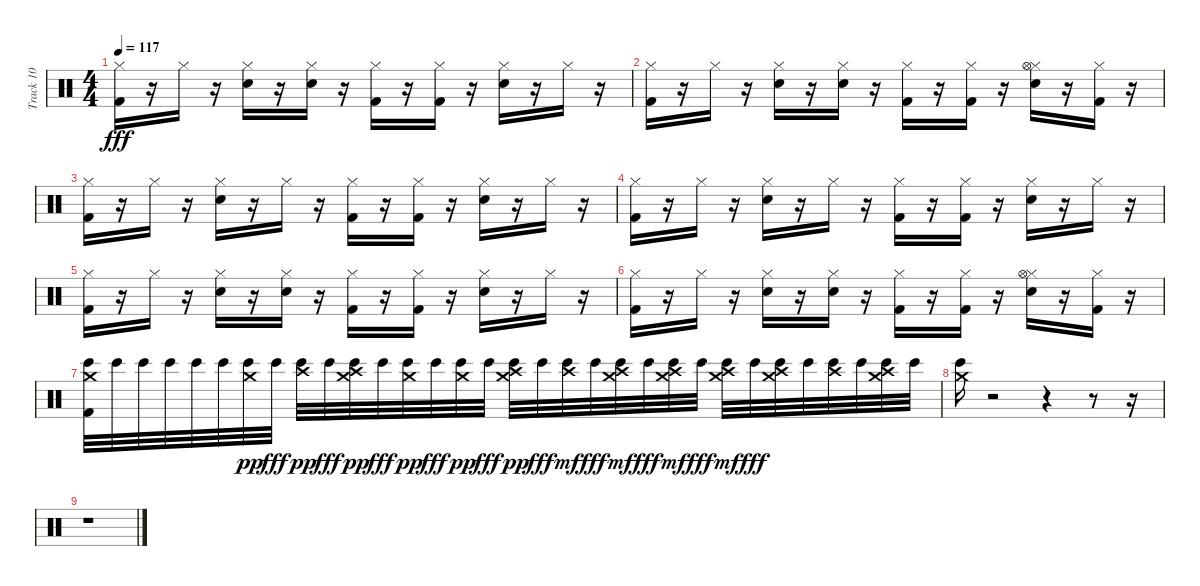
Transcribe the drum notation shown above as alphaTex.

\track ("Track 10" "Track 10") {instrument percussion}
\staff {score}
\articulation defaults
\ts (4 4)
\tempo 117
\clef neutral
\ks c
("Hi-Hat (closed)" "Kick (hit) 2").16{dy fff} r.16 "Hi-Hat (closed)".16 r.16 ("Hi-Hat (closed)" "Snare (hit) 2").16 r.16 ("Hi-Hat (closed)" "Snare (hit) 2").16 r.16 ("Hi-Hat (closed)" "Kick (hit) 2").16 r.16 ("Hi-Hat (closed)" "Kick (hit) 2").16 r.16 ("Hi-Hat (closed)" "Snare (hit) 2").16 r.16 "Hi-Hat (closed)".16 r.16 |
("Hi-Hat (closed)" "Kick (hit) 2").16 r.16 "Hi-Hat (closed)".16 r.16 ("Hi-Hat (closed)" "Snare (hit) 2").16 r.16 ("Hi-Hat (closed)" "Snare (hit) 2").16 r.16 ("Hi-Hat (closed)" "Kick (hit) 2").16 r.16 ("Hi-Hat (closed)" "Kick (hit) 2").16 r.16 ("Hi-Hat (closed)" "Hi-Hat (open)" "Snare (hit) 2").16 r.16 ("Hi-Hat (closed)" "Kick (hit) 2").16 r.16 |
("Hi-Hat (closed)" "Kick (hit) 2").16 r.16 "Hi-Hat (closed)".16 r.16 ("Hi-Hat (closed)" "Snare (hit) 2").16 r.16 "Hi-Hat (closed)".16 r.16 ("Hi-Hat (closed)" "Kick (hit) 2").16 r.16 ("Hi-Hat (closed)" "Kick (hit) 2").16 r.16 ("Hi-Hat (closed)" "Snare (hit) 2").16 r.16 "Hi-Hat (closed)".16 r.16 |
("Hi-Hat (closed)" "Kick (hit) 2").16 r.16 "Hi-Hat (closed)".16 r.16 ("Hi-Hat (closed)" "Snare (hit) 2").16 r.16 "Hi-Hat (closed)".16 r.16 ("Hi-Hat (closed)" "Kick (hit) 2").16 r.16 ("Hi-Hat (closed)" "Kick (hit) 2").16 r.16 ("Hi-Hat (closed)" "Snare (hit) 2").16 r.16 "Hi-Hat (closed)".16 r.16 |
("Hi-Hat (closed)" "Kick (hit) 2").16 r.16 "Hi-Hat (closed)".16 r.16 ("Hi-Hat (closed)" "Snare (hit) 2").16 r.16 ("Hi-Hat (closed)" "Snare (hit) 2").16 r.16 ("Hi-Hat (closed)" "Kick (hit) 2").16 r.16 ("Hi-Hat (closed)" "Kick (hit) 2").16 r.16 ("Hi-Hat (closed)" "Snare (hit) 2").16 r.16 "Hi-Hat (closed)".16 r.16 |
("Hi-Hat (closed)" "Kick (hit) 2").16 r.16 "Hi-Hat (closed)".16 r.16 ("Hi-Hat (closed)" "Snare (hit) 2").16 r.16 ("Hi-Hat (closed)" "Snare (hit) 2").16 r.16 ("Hi-Hat (closed)" "Kick (hit) 2").16 r.16 ("Hi-Hat (closed)" "Kick (hit) 2").16 r.16 ("Hi-Hat (closed)" "Hi-Hat (open)" "Snare (hit) 2").16 r.16 ("Hi-Hat (closed)" "Kick (hit) 2").16 r.16 |
("Bongo High (hit)" "Crash medium (hit)" "Kick (hit) 2").32 "Bongo High (hit)".32 "Bongo High (hit)".32 "Bongo High (hit)".32 "Bongo High (hit)".32 "Bongo High (hit)".32 ("Bongo High (hit)" "Crash medium (hit)").32{dy pp volume 11} "Bongo High (hit)".32{dy fff} ("Bongo High (hit)" "Crash high (hit)").32{dy pp volume 10} "Bongo High (hit)".32{dy fff} ("Bongo High (hit)" "Crash medium (hit)" "Crash high (hit)").32{dy pp volume 10} "Bongo High (hit)".32{dy fff} ("Bongo High (hit)" "Crash medium (hit)").32{dy pp volume 10} "Bongo High (hit)".32{dy fff} ("Bongo High (hit)" "Crash medium (hit)").32{dy pp volume 9} "Bongo High (hit)".32{dy fff} ("Bongo High (hit)" "Crash high (hit)" "Crash medium (hit)").32{dy pp volume 9} "Bongo High (hit)".32{dy fff} ("Bongo High (hit)" "Crash high (hit)").32{dy mf volume 8} "Bongo High (hit)".32{dy fff} ("Bongo High (hit)" "Crash medium (hit)" "Crash high (hit)").32{dy mf volume 8} "Bongo High (hit)".32{dy fff} ("Bongo High (hit)" "Crash medium (hit)" "Crash high (hit)").32{dy mf volume 7} "Bongo High (hit)".32{dy fff} ("Bongo High (hit)" "Crash high (hit)" "Crash medium (hit)").32{dy mf volume 6} "Bongo High (hit)".32{dy fff} ("Bongo High (hit)" "Crash high (hit)" "Crash medium (hit)").32{volume 6} "Bongo High (hit)".32 ("Bongo High (hit)" "Crash high (hit)").32{volume 5} "Bongo High (hit)".32 ("Bongo High (hit)" "Crash medium (hit)" "Crash high (hit)").32{volume 4} "Bongo High (hit)".32 |
("Bongo High (hit)" "Crash medium (hit)").16{volume 3} r.2 r.4 r.8 r.16 |
r.1
